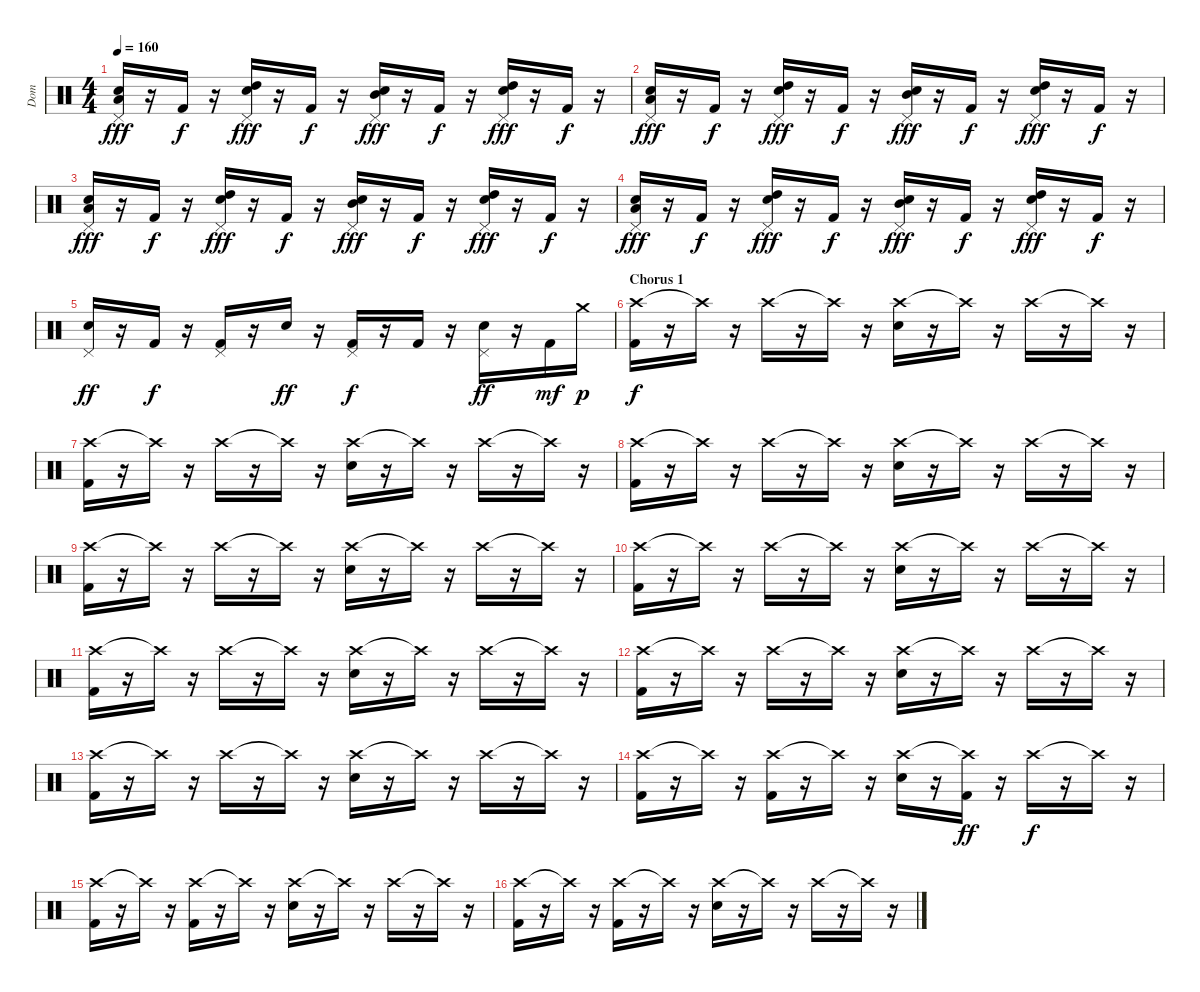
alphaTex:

\track ("Dom" "Dom") {instrument percussion}
\staff {score}
\articulation defaults
\ts (4 4)
\tempo 160
\clef neutral
\ks c
("Pedal Hi-Hat (hit)" "Low Tom (hit)" "Electric Snare (hit)").16{dy fff} r.16 "Kick (hit) 2".16{dy f} r.16 ("Pedal Hi-Hat (hit)" "High Tom (hit)" "Electric Snare (hit)").16{dy fff} r.16 "Kick (hit) 2".16{dy f} r.16 ("Pedal Hi-Hat (hit)" "Mid Tom (hit)" "Electric Snare (hit)").16{dy fff} r.16 "Kick (hit) 2".16{dy f} r.16 ("Pedal Hi-Hat (hit)" "High Tom (hit)" "Electric Snare (hit)").16{dy fff} r.16 "Kick (hit) 2".16{dy f} r.16 |
("Pedal Hi-Hat (hit)" "Low Tom (hit)" "Electric Snare (hit)").16{dy fff} r.16 "Kick (hit) 2".16{dy f} r.16 ("Pedal Hi-Hat (hit)" "High Tom (hit)" "Electric Snare (hit)").16{dy fff} r.16 "Kick (hit) 2".16{dy f} r.16 ("Pedal Hi-Hat (hit)" "Mid Tom (hit)" "Electric Snare (hit)").16{dy fff} r.16 "Kick (hit) 2".16{dy f} r.16 ("Pedal Hi-Hat (hit)" "High Tom (hit)" "Electric Snare (hit)").16{dy fff} r.16 "Kick (hit) 2".16{dy f} r.16 |
("Pedal Hi-Hat (hit)" "Low Tom (hit)" "Electric Snare (hit)").16{dy fff} r.16 "Kick (hit) 2".16{dy f} r.16 ("Pedal Hi-Hat (hit)" "High Tom (hit)" "Electric Snare (hit)").16{dy fff} r.16 "Kick (hit) 2".16{dy f} r.16 ("Pedal Hi-Hat (hit)" "Mid Tom (hit)" "Electric Snare (hit)").16{dy fff} r.16 "Kick (hit) 2".16{dy f} r.16 ("Pedal Hi-Hat (hit)" "High Tom (hit)" "Electric Snare (hit)").16{dy fff} r.16 "Kick (hit) 2".16{dy f} r.16 |
("Pedal Hi-Hat (hit)" "Low Tom (hit)" "Electric Snare (hit)").16{dy fff} r.16 "Kick (hit) 2".16{dy f} r.16 ("Pedal Hi-Hat (hit)" "High Tom (hit)" "Electric Snare (hit)").16{dy fff} r.16 "Kick (hit) 2".16{dy f} r.16 ("Pedal Hi-Hat (hit)" "Mid Tom (hit)" "Electric Snare (hit)").16{dy fff} r.16 "Kick (hit) 2".16{dy f} r.16 ("Pedal Hi-Hat (hit)" "High Tom (hit)" "Electric Snare (hit)").16{dy fff} r.16 "Kick (hit) 2".16{dy f} r.16 |
("Pedal Hi-Hat (hit)" "Electric Snare (hit)").16{dy ff} r.16 "Kick (hit) 2".16{dy f} r.16 ("Pedal Hi-Hat (hit)" "Kick (hit) 2").16 r.16 "Electric Snare (hit)".16{dy ff} r.16 ("Pedal Hi-Hat (hit)" "Kick (hit) 2").16{dy f} r.16 "Kick (hit) 2".16 r.16 ("Pedal Hi-Hat (hit)" "Electric Snare (hit)").16{dy ff} r.16 "Kick (hit) 2".16{dy mf} "Crash medium (hit)".16{dy p} |
\section ("" "Chorus 1")
("Crash high (hit)" "Kick (hit) 2").16{dy f} r.16 "Crash high (hit)"{t}.16 r.16 "Crash high (hit)".16 r.16 "Crash high (hit)"{t}.16 r.16 ("Crash high (hit)" "Electric Snare (hit)").16 r.16 "Crash high (hit)"{t}.16 r.16 "Crash high (hit)".16 r.16 "Crash high (hit)"{t}.16 r.16 |
("Crash high (hit)" "Kick (hit) 2").16 r.16 "Crash high (hit)"{t}.16 r.16 "Crash high (hit)".16 r.16 "Crash high (hit)"{t}.16 r.16 ("Crash high (hit)" "Electric Snare (hit)").16 r.16 "Crash high (hit)"{t}.16 r.16 "Crash high (hit)".16 r.16 "Crash high (hit)"{t}.16 r.16 |
("Crash high (hit)" "Kick (hit) 2").16 r.16 "Crash high (hit)"{t}.16 r.16 "Crash high (hit)".16 r.16 "Crash high (hit)"{t}.16 r.16 ("Crash high (hit)" "Electric Snare (hit)").16 r.16 "Crash high (hit)"{t}.16 r.16 "Crash high (hit)".16 r.16 "Crash high (hit)"{t}.16 r.16 |
("Crash high (hit)" "Kick (hit) 2").16 r.16 "Crash high (hit)"{t}.16 r.16 "Crash high (hit)".16 r.16 "Crash high (hit)"{t}.16 r.16 ("Crash high (hit)" "Electric Snare (hit)").16 r.16 "Crash high (hit)"{t}.16 r.16 "Crash high (hit)".16 r.16 "Crash high (hit)"{t}.16 r.16 |
("Crash high (hit)" "Kick (hit) 2").16 r.16 "Crash high (hit)"{t}.16 r.16 "Crash high (hit)".16 r.16 "Crash high (hit)"{t}.16 r.16 ("Crash high (hit)" "Electric Snare (hit)").16 r.16 "Crash high (hit)"{t}.16 r.16 "Crash high (hit)".16 r.16 "Crash high (hit)"{t}.16 r.16 |
("Crash high (hit)" "Kick (hit) 2").16 r.16 "Crash high (hit)"{t}.16 r.16 "Crash high (hit)".16 r.16 "Crash high (hit)"{t}.16 r.16 ("Crash high (hit)" "Electric Snare (hit)").16 r.16 "Crash high (hit)"{t}.16 r.16 "Crash high (hit)".16 r.16 "Crash high (hit)"{t}.16 r.16 |
("Crash high (hit)" "Kick (hit) 2").16 r.16 "Crash high (hit)"{t}.16 r.16 "Crash high (hit)".16 r.16 "Crash high (hit)"{t}.16 r.16 ("Crash high (hit)" "Electric Snare (hit)").16 r.16 "Crash high (hit)"{t}.16 r.16 "Crash high (hit)".16 r.16 "Crash high (hit)"{t}.16 r.16 |
("Crash high (hit)" "Kick (hit) 2").16 r.16 "Crash high (hit)"{t}.16 r.16 "Crash high (hit)".16 r.16 "Crash high (hit)"{t}.16 r.16 ("Crash high (hit)" "Electric Snare (hit)").16 r.16 "Crash high (hit)"{t}.16 r.16 "Crash high (hit)".16 r.16 "Crash high (hit)"{t}.16 r.16 |
("Crash high (hit)" "Kick (hit) 2").16 r.16 "Crash high (hit)"{t}.16 r.16 ("Crash high (hit)" "Kick (hit) 2").16 r.16 "Crash high (hit)"{t}.16 r.16 ("Crash high (hit)" "Electric Snare (hit)").16 r.16 ("Crash high (hit)"{t} "Kick (hit) 2").16{dy ff} r.16 "Crash high (hit)".16{dy f} r.16 "Crash high (hit)"{t}.16 r.16 |
("Crash high (hit)" "Kick (hit) 2").16 r.16 "Crash high (hit)"{t}.16 r.16 ("Crash high (hit)" "Kick (hit) 2").16 r.16 "Crash high (hit)"{t}.16 r.16 ("Crash high (hit)" "Electric Snare (hit)").16 r.16 "Crash high (hit)"{t}.16 r.16 "Crash high (hit)".16 r.16 "Crash high (hit)"{t}.16 r.16 |
("Crash high (hit)" "Kick (hit) 2").16 r.16 "Crash high (hit)"{t}.16 r.16 ("Crash high (hit)" "Kick (hit) 2").16 r.16 "Crash high (hit)"{t}.16 r.16 ("Crash high (hit)" "Electric Snare (hit)").16 r.16 "Crash high (hit)"{t}.16 r.16 "Crash high (hit)".16 r.16 "Crash high (hit)"{t}.16 r.16
